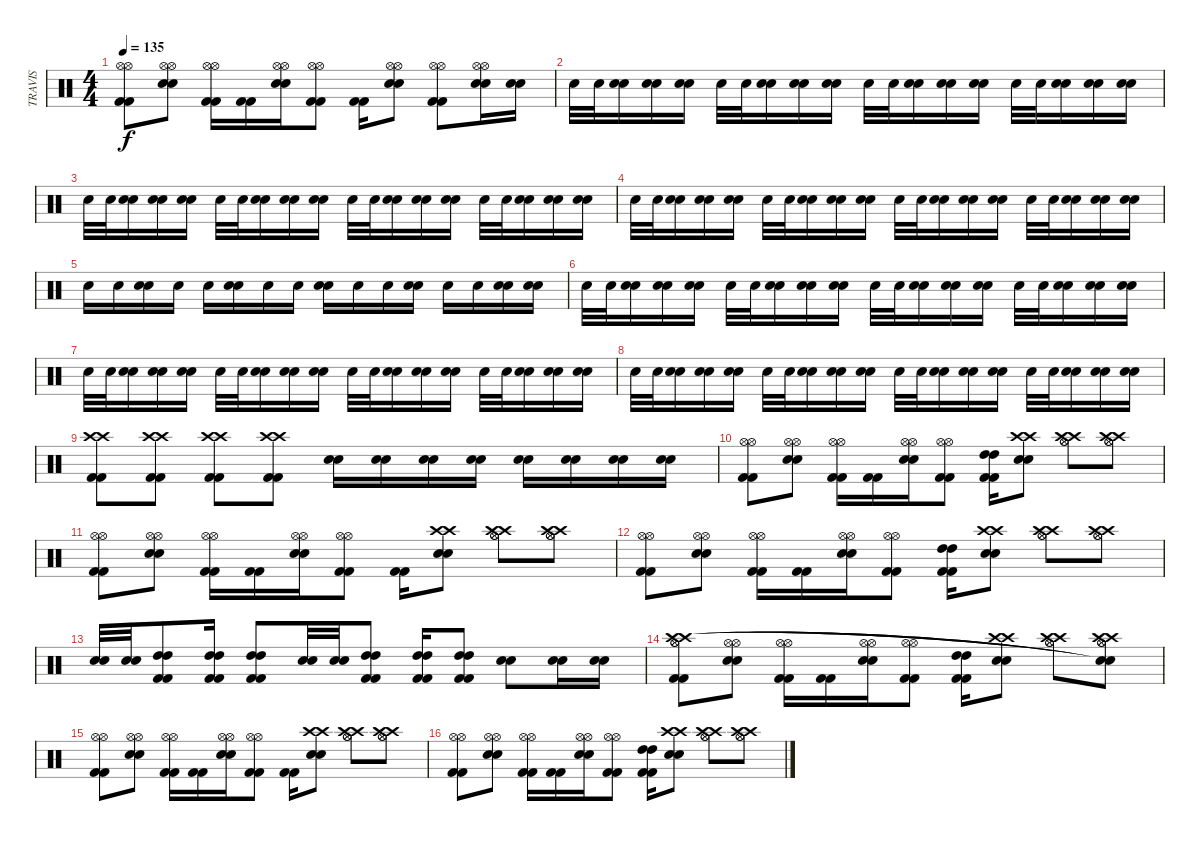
\track ("TRAVIS" "TRAVIS") {instrument percussion}
\staff {score}
\articulation defaults
\ts (4 4)
\tempo 135
\clef neutral
\ks c
("Kick (hit) 2" "Kick (hit) 2" "Hi-Hat (open)" "Hi-Hat (open)").8{dy f} ("Snare (hit) 2" "Snare (hit) 2" "Hi-Hat (open)" "Hi-Hat (open)").8 ("Kick (hit) 2" "Kick (hit) 2" "Hi-Hat (open)" "Hi-Hat (open)").16 ("Kick (hit) 2" "Kick (hit) 2").16 ("Snare (hit) 2" "Snare (hit) 2" "Hi-Hat (open)" "Hi-Hat (open)").16 ("Kick (hit) 2" "Kick (hit) 2" "Hi-Hat (open)" "Hi-Hat (open)").8 ("Kick (hit) 2" "Kick (hit) 2").16 ("Snare (hit) 2" "Snare (hit) 2" "Hi-Hat (open)" "Hi-Hat (open)").8 ("Kick (hit) 2" "Kick (hit) 2" "Hi-Hat (open)" "Hi-Hat (open)").8 ("Snare (hit) 2" "Snare (hit) 2" "Hi-Hat (open)" "Hi-Hat (open)").16 ("Snare (hit) 2" "Snare (hit) 2").16 |
"Snare (hit) 2".32 "Snare (hit) 2".32 ("Snare (hit) 2" "Snare (hit) 2").16 ("Snare (hit) 2" "Snare (hit) 2").16 ("Snare (hit) 2" "Snare (hit) 2").16 "Snare (hit) 2".32 "Snare (hit) 2".32 ("Snare (hit) 2" "Snare (hit) 2").16 ("Snare (hit) 2" "Snare (hit) 2").16 ("Snare (hit) 2" "Snare (hit) 2").16 "Snare (hit) 2".32 "Snare (hit) 2".32 ("Snare (hit) 2" "Snare (hit) 2").16 ("Snare (hit) 2" "Snare (hit) 2").16 ("Snare (hit) 2" "Snare (hit) 2").16 "Snare (hit) 2".32 "Snare (hit) 2".32 ("Snare (hit) 2" "Snare (hit) 2").16 ("Snare (hit) 2" "Snare (hit) 2").16 ("Snare (hit) 2" "Snare (hit) 2").16 |
"Snare (hit) 2".32 "Snare (hit) 2".32 ("Snare (hit) 2" "Snare (hit) 2").16 ("Snare (hit) 2" "Snare (hit) 2").16 ("Snare (hit) 2" "Snare (hit) 2").16 "Snare (hit) 2".32 "Snare (hit) 2".32 ("Snare (hit) 2" "Snare (hit) 2").16 ("Snare (hit) 2" "Snare (hit) 2").16 ("Snare (hit) 2" "Snare (hit) 2").16 "Snare (hit) 2".32 "Snare (hit) 2".32 ("Snare (hit) 2" "Snare (hit) 2").16 ("Snare (hit) 2" "Snare (hit) 2").16 ("Snare (hit) 2" "Snare (hit) 2").16 "Snare (hit) 2".32 "Snare (hit) 2".32 ("Snare (hit) 2" "Snare (hit) 2").16 ("Snare (hit) 2" "Snare (hit) 2").16 ("Snare (hit) 2" "Snare (hit) 2").16 |
"Snare (hit) 2".32 "Snare (hit) 2".32 ("Snare (hit) 2" "Snare (hit) 2").16 ("Snare (hit) 2" "Snare (hit) 2").16 ("Snare (hit) 2" "Snare (hit) 2").16 "Snare (hit) 2".32 "Snare (hit) 2".32 ("Snare (hit) 2" "Snare (hit) 2").16 ("Snare (hit) 2" "Snare (hit) 2").16 ("Snare (hit) 2" "Snare (hit) 2").16 "Snare (hit) 2".32 "Snare (hit) 2".32 ("Snare (hit) 2" "Snare (hit) 2").16 ("Snare (hit) 2" "Snare (hit) 2").16 ("Snare (hit) 2" "Snare (hit) 2").16 "Snare (hit) 2".32 "Snare (hit) 2".32 ("Snare (hit) 2" "Snare (hit) 2").16 ("Snare (hit) 2" "Snare (hit) 2").16 ("Snare (hit) 2" "Snare (hit) 2").16 |
"Snare (hit) 2".16 "Snare (hit) 2".16 ("Snare (hit) 2" "Snare (hit) 2").16 "Snare (hit) 2".16 "Snare (hit) 2".16 ("Snare (hit) 2" "Snare (hit) 2").16 "Snare (hit) 2".16 "Snare (hit) 2".16 ("Snare (hit) 2" "Snare (hit) 2").16 "Snare (hit) 2".16 "Snare (hit) 2".16 ("Snare (hit) 2" "Snare (hit) 2").16 "Snare (hit) 2".16 "Snare (hit) 2".16 ("Snare (hit) 2" "Snare (hit) 2").16 ("Snare (hit) 2" "Snare (hit) 2").16 |
"Snare (hit) 2".32 "Snare (hit) 2".32 ("Snare (hit) 2" "Snare (hit) 2").16 ("Snare (hit) 2" "Snare (hit) 2").16 ("Snare (hit) 2" "Snare (hit) 2").16 "Snare (hit) 2".32 "Snare (hit) 2".32 ("Snare (hit) 2" "Snare (hit) 2").16 ("Snare (hit) 2" "Snare (hit) 2").16 ("Snare (hit) 2" "Snare (hit) 2").16 "Snare (hit) 2".32 "Snare (hit) 2".32 ("Snare (hit) 2" "Snare (hit) 2").16 ("Snare (hit) 2" "Snare (hit) 2").16 ("Snare (hit) 2" "Snare (hit) 2").16 "Snare (hit) 2".32 "Snare (hit) 2".32 ("Snare (hit) 2" "Snare (hit) 2").16 ("Snare (hit) 2" "Snare (hit) 2").16 ("Snare (hit) 2" "Snare (hit) 2").16 |
"Snare (hit) 2".32 "Snare (hit) 2".32 ("Snare (hit) 2" "Snare (hit) 2").16 ("Snare (hit) 2" "Snare (hit) 2").16 ("Snare (hit) 2" "Snare (hit) 2").16 "Snare (hit) 2".32 "Snare (hit) 2".32 ("Snare (hit) 2" "Snare (hit) 2").16 ("Snare (hit) 2" "Snare (hit) 2").16 ("Snare (hit) 2" "Snare (hit) 2").16 "Snare (hit) 2".32 "Snare (hit) 2".32 ("Snare (hit) 2" "Snare (hit) 2").16 ("Snare (hit) 2" "Snare (hit) 2").16 ("Snare (hit) 2" "Snare (hit) 2").16 "Snare (hit) 2".32 "Snare (hit) 2".32 ("Snare (hit) 2" "Snare (hit) 2").16 ("Snare (hit) 2" "Snare (hit) 2").16 ("Snare (hit) 2" "Snare (hit) 2").16 |
"Snare (hit) 2".32 "Snare (hit) 2".32 ("Snare (hit) 2" "Snare (hit) 2").16 ("Snare (hit) 2" "Snare (hit) 2").16 ("Snare (hit) 2" "Snare (hit) 2").16 "Snare (hit) 2".32 "Snare (hit) 2".32 ("Snare (hit) 2" "Snare (hit) 2").16 ("Snare (hit) 2" "Snare (hit) 2").16 ("Snare (hit) 2" "Snare (hit) 2").16 "Snare (hit) 2".32 "Snare (hit) 2".32 ("Snare (hit) 2" "Snare (hit) 2").16 ("Snare (hit) 2" "Snare (hit) 2").16 ("Snare (hit) 2" "Snare (hit) 2").16 "Snare (hit) 2".32 "Snare (hit) 2".32 ("Snare (hit) 2" "Snare (hit) 2").16 ("Snare (hit) 2" "Snare (hit) 2").16 ("Snare (hit) 2" "Snare (hit) 2").16 |
("Crash high (hit)" "Crash high (hit)" "Kick (hit) 2" "Kick (hit) 2").8 ("Crash high (hit)" "Crash high (hit)" "Kick (hit) 2" "Kick (hit) 2").8 ("Crash high (hit)" "Crash high (hit)" "Kick (hit) 2" "Kick (hit) 2").8 ("Crash high (hit)" "Crash high (hit)" "Kick (hit) 2" "Kick (hit) 2").8 ("Snare (hit) 2" "Snare (hit) 2").16 ("Snare (hit) 2" "Snare (hit) 2").16 ("Snare (hit) 2" "Snare (hit) 2").16 ("Snare (hit) 2" "Snare (hit) 2").16 ("Snare (hit) 2" "Snare (hit) 2").16 ("Snare (hit) 2" "Snare (hit) 2").16 ("Snare (hit) 2" "Snare (hit) 2").16 ("Snare (hit) 2" "Snare (hit) 2").16 |
("Kick (hit) 2" "Kick (hit) 2" "Hi-Hat (open)" "Hi-Hat (open)").8 ("Snare (hit) 2" "Snare (hit) 2" "Hi-Hat (open)" "Hi-Hat (open)").8 ("Kick (hit) 2" "Kick (hit) 2" "Hi-Hat (open)" "Hi-Hat (open)").16 ("Kick (hit) 2" "Kick (hit) 2").16 ("Snare (hit) 2" "Snare (hit) 2" "Hi-Hat (open)" "Hi-Hat (open)").16 ("Kick (hit) 2" "Kick (hit) 2" "Hi-Hat (open)" "Hi-Hat (open)").8 ("Kick (hit) 2" "Kick (hit) 2" "High Tom (hit)" "High Tom (hit)").16 ("Snare (hit) 2" "Snare (hit) 2" "Crash high (hit)" "Crash high (hit)").8 ("Crash high (hit)" "Crash high (hit)" "Hi-Hat (open)" "Hi-Hat (open)").8 ("Crash high (hit)" "Crash high (hit)" "Hi-Hat (open)" "Hi-Hat (open)").8 |
("Kick (hit) 2" "Kick (hit) 2" "Hi-Hat (open)" "Hi-Hat (open)").8 ("Snare (hit) 2" "Snare (hit) 2" "Hi-Hat (open)" "Hi-Hat (open)").8 ("Kick (hit) 2" "Kick (hit) 2" "Hi-Hat (open)" "Hi-Hat (open)").16 ("Kick (hit) 2" "Kick (hit) 2").16 ("Snare (hit) 2" "Snare (hit) 2" "Hi-Hat (open)" "Hi-Hat (open)").16 ("Kick (hit) 2" "Kick (hit) 2" "Hi-Hat (open)" "Hi-Hat (open)").8 ("Kick (hit) 2" "Kick (hit) 2").16 ("Snare (hit) 2" "Snare (hit) 2" "Crash high (hit)" "Crash high (hit)").8 ("Crash high (hit)" "Crash high (hit)" "Hi-Hat (open)" "Hi-Hat (open)").8 ("Crash high (hit)" "Crash high (hit)" "Hi-Hat (open)" "Hi-Hat (open)").8 |
("Kick (hit) 2" "Kick (hit) 2" "Hi-Hat (open)" "Hi-Hat (open)").8 ("Snare (hit) 2" "Snare (hit) 2" "Hi-Hat (open)" "Hi-Hat (open)").8 ("Kick (hit) 2" "Kick (hit) 2" "Hi-Hat (open)" "Hi-Hat (open)").16 ("Kick (hit) 2" "Kick (hit) 2").16 ("Snare (hit) 2" "Snare (hit) 2" "Hi-Hat (open)" "Hi-Hat (open)").16 ("Kick (hit) 2" "Kick (hit) 2" "Hi-Hat (open)" "Hi-Hat (open)").8 ("Kick (hit) 2" "Kick (hit) 2" "High Tom (hit)" "High Tom (hit)").16 ("Snare (hit) 2" "Snare (hit) 2" "Crash high (hit)" "Crash high (hit)").8 ("Crash high (hit)" "Crash high (hit)" "Hi-Hat (open)" "Hi-Hat (open)").8 ("Crash high (hit)" "Crash high (hit)" "Hi-Hat (open)" "Hi-Hat (open)").8 |
("Snare (hit) 2" "Snare (hit) 2").32 ("Snare (hit) 2" "Snare (hit) 2").32 ("Kick (hit) 2" "Kick (hit) 2" "High Tom (hit)" "High Tom (hit)").8 ("Kick (hit) 2" "Kick (hit) 2" "High Tom (hit)" "High Tom (hit)").16 ("Kick (hit) 2" "Kick (hit) 2" "High Tom (hit)" "High Tom (hit)").8 ("Snare (hit) 2" "Snare (hit) 2").32 ("Snare (hit) 2" "Snare (hit) 2").32 ("Kick (hit) 2" "Kick (hit) 2" "High Tom (hit)" "High Tom (hit)").8 ("Kick (hit) 2" "Kick (hit) 2" "High Tom (hit)" "High Tom (hit)").16 ("Kick (hit) 2" "Kick (hit) 2" "High Tom (hit)" "High Tom (hit)").8 ("Snare (hit) 2" "Snare (hit) 2").8 ("Snare (hit) 2" "Snare (hit) 2").16 ("Snare (hit) 2" "Snare (hit) 2").16 |
("Kick (hit) 2" "Kick (hit) 2" "Hi-Hat (open)" "Hi-Hat (open)" "Crash high (hit)" "Crash high (hit)").8 ("Snare (hit) 2" "Snare (hit) 2" "Hi-Hat (open)" "Hi-Hat (open)").8 ("Kick (hit) 2" "Kick (hit) 2" "Hi-Hat (open)" "Hi-Hat (open)").16 ("Kick (hit) 2" "Kick (hit) 2").16 ("Snare (hit) 2" "Snare (hit) 2" "Hi-Hat (open)" "Hi-Hat (open)").16 ("Kick (hit) 2" "Kick (hit) 2" "Hi-Hat (open)" "Hi-Hat (open)").8 ("Kick (hit) 2" "Kick (hit) 2" "High Tom (hit)" "High Tom (hit)").16 ("Snare (hit) 2" "Snare (hit) 2" "Crash high (hit)" "Crash high (hit)").8 ("Crash high (hit)" "Crash high (hit)" "Hi-Hat (open)" "Hi-Hat (open)").8 ("Crash high (hit)" "Crash high (hit)" "Hi-Hat (open)" "Hi-Hat (open)" "Snare (hit)"{t} "Snare (hit)"{t}).8 |
("Kick (hit) 2" "Kick (hit) 2" "Hi-Hat (open)" "Hi-Hat (open)").8 ("Snare (hit) 2" "Snare (hit) 2" "Hi-Hat (open)" "Hi-Hat (open)").8 ("Kick (hit) 2" "Kick (hit) 2" "Hi-Hat (open)" "Hi-Hat (open)").16 ("Kick (hit) 2" "Kick (hit) 2").16 ("Snare (hit) 2" "Snare (hit) 2" "Hi-Hat (open)" "Hi-Hat (open)").16 ("Kick (hit) 2" "Kick (hit) 2" "Hi-Hat (open)" "Hi-Hat (open)").8 ("Kick (hit) 2" "Kick (hit) 2").16 ("Snare (hit) 2" "Snare (hit) 2" "Crash high (hit)" "Crash high (hit)").8 ("Crash high (hit)" "Crash high (hit)" "Hi-Hat (open)" "Hi-Hat (open)").8 ("Crash high (hit)" "Crash high (hit)" "Hi-Hat (open)" "Hi-Hat (open)").8 |
("Kick (hit) 2" "Kick (hit) 2" "Hi-Hat (open)" "Hi-Hat (open)").8 ("Snare (hit) 2" "Snare (hit) 2" "Hi-Hat (open)" "Hi-Hat (open)").8 ("Kick (hit) 2" "Kick (hit) 2" "Hi-Hat (open)" "Hi-Hat (open)").16 ("Kick (hit) 2" "Kick (hit) 2").16 ("Snare (hit) 2" "Snare (hit) 2" "Hi-Hat (open)" "Hi-Hat (open)").16 ("Kick (hit) 2" "Kick (hit) 2" "Hi-Hat (open)" "Hi-Hat (open)").8 ("Kick (hit) 2" "Kick (hit) 2" "High Tom (hit)" "High Tom (hit)").16 ("Snare (hit) 2" "Snare (hit) 2" "Crash high (hit)" "Crash high (hit)").8 ("Crash high (hit)" "Crash high (hit)" "Hi-Hat (open)" "Hi-Hat (open)").8 ("Crash high (hit)" "Crash high (hit)" "Hi-Hat (open)" "Hi-Hat (open)").8
